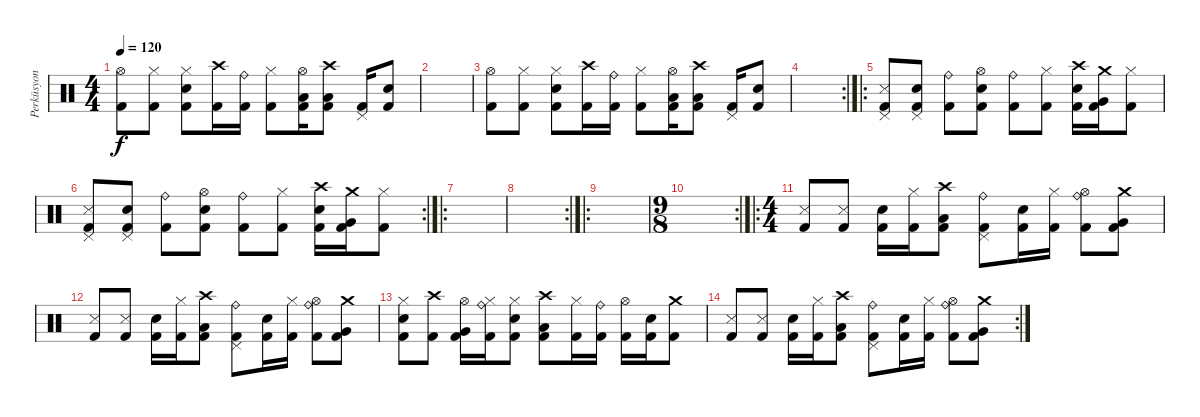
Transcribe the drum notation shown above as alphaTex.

\track ("Perküsyon" "Perküsyon") {instrument percussion}
\staff {score}
\articulation defaults
\ts (4 4)
\tempo 120
\clef neutral
\ks c
("Kick (hit) 2" "Hi-Hat (open)").8{dy f} ("Kick (hit) 2" "Hi-Hat (closed)").8 ("Kick (hit) 2" "Snare (hit) 2" "Hi-Hat (closed)").8 ("Kick (hit) 2" "Crash high (hit)").16 ("Kick (hit) 2" "Ride (bell)").16 ("Kick (hit) 2" "Hi-Hat (closed)").8 ("Kick (hit) 2" "Hi-Hat (open)" "Low Tom (hit)").16 ("Kick (hit) 2" "Low Tom (hit)" "Crash high (hit)").8 ("Kick (hit) 2" "Pedal Hi-Hat (hit)").16 ("Kick (hit) 2" "Snare (hit) 2").8 |
|
("Kick (hit) 2" "Hi-Hat (open)").8 ("Kick (hit) 2" "Hi-Hat (closed)").8 ("Kick (hit) 2" "Snare (hit) 2" "Hi-Hat (closed)").8 ("Kick (hit) 2" "Crash high (hit)").16 ("Kick (hit) 2" "Ride (bell)").16 ("Kick (hit) 2" "Hi-Hat (closed)").8 ("Kick (hit) 2" "Hi-Hat (open)" "Low Tom (hit)").16 ("Kick (hit) 2" "Low Tom (hit)" "Crash high (hit)").8 ("Kick (hit) 2" "Pedal Hi-Hat (hit)").16 ("Kick (hit) 2" "Snare (hit) 2").8 |
\rc 2
|
\ro
("Kick (hit) 2" "Snare (side stick) 3" "Pedal Hi-Hat (hit)").8 ("Kick (hit) 2" "Snare (hit) 2" "Pedal Hi-Hat (hit)").8 ("Kick (hit) 2" "Ride (bell)").8 ("Kick (hit) 2" "Snare (hit) 2" "Hi-Hat (open)").8 ("Kick (hit) 2" "Ride (bell)").8 ("Kick (hit) 2" "Hi-Hat (closed)").8 ("Kick (hit) 2" "Snare (hit) 2" "Crash high (hit)").16 ("Kick (hit) 2" "Very Low Tom (hit)" "Crash medium (hit)").16 ("Kick (hit) 2" "Hi-Hat (closed)").8 |
\rc 2
("Kick (hit) 2" "Snare (side stick) 3" "Pedal Hi-Hat (hit)").8 ("Kick (hit) 2" "Snare (hit) 2" "Pedal Hi-Hat (hit)").8 ("Kick (hit) 2" "Ride (bell)").8 ("Kick (hit) 2" "Snare (hit) 2" "Hi-Hat (open)").8 ("Kick (hit) 2" "Ride (bell)").8 ("Kick (hit) 2" "Hi-Hat (closed)").8 ("Kick (hit) 2" "Snare (hit) 2" "Crash high (hit)").16 ("Kick (hit) 2" "Very Low Tom (hit)" "Crash medium (hit)").16 ("Kick (hit) 2" "Hi-Hat (closed)").8 |
\ro
|
\rc 2
|
\ro
|
\rc 2
\ts (9 8)
|
\ro
\ts (4 4)
("Kick (hit) 2" "Snare (side stick) 3").8 ("Kick (hit) 2" "Snare (side stick) 3").8 ("Kick (hit) 2" "Snare (hit) 2").16 ("Kick (hit) 2" "Hi-Hat (closed)").16 ("Kick (hit) 2" "Low Tom (hit)" "Crash high (hit)").8 ("Kick (hit) 2" "Ride (bell)" "Pedal Hi-Hat (hit)").8 ("Kick (hit) 2" "Snare (hit) 2").16 ("Kick (hit) 2" "Hi-Hat (closed)").16 ("Kick (hit) 2" "Hi-Hat (open)" "Ride (bell)").8 ("Kick (hit) 2" "Very Low Tom (hit)" "Crash medium (hit)").8 |
("Kick (hit) 2" "Snare (side stick) 3").8 ("Kick (hit) 2" "Snare (side stick) 3").8 ("Kick (hit) 2" "Snare (hit) 2").16 ("Kick (hit) 2" "Hi-Hat (closed)").16 ("Kick (hit) 2" "Low Tom (hit)" "Crash high (hit)").8 ("Kick (hit) 2" "Ride (bell)" "Pedal Hi-Hat (hit)").8 ("Kick (hit) 2" "Snare (hit) 2").16 ("Kick (hit) 2" "Hi-Hat (closed)").16 ("Kick (hit) 2" "Hi-Hat (open)" "Ride (bell)").8 ("Kick (hit) 2" "Very Low Tom (hit)" "Crash medium (hit)").8 |
("Kick (hit) 2" "Snare (hit) 2" "Hi-Hat (closed)").8 ("Kick (hit) 2" "Crash high (hit)").8 ("Kick (hit) 2" "Hi-Hat (open)" "Very Low Tom (hit)").16 ("Kick (hit) 2" "Ride (bell)" "Hi-Hat (closed)").16 ("Kick (hit) 2" "Snare (hit) 2" "Hi-Hat (closed)").8 ("Kick (hit) 2" "Crash high (hit)" "Low Tom (hit)").8 ("Kick (hit) 2" "Hi-Hat (closed)").16 ("Kick (hit) 2" "Ride (bell)").16 ("Kick (hit) 2" "Hi-Hat (open)").16 ("Kick (hit) 2" "Snare (hit) 2").16 ("Crash medium (hit)" "Kick (hit) 2").8 |
\rc 2
("Kick (hit) 2" "Snare (side stick) 3").8 ("Kick (hit) 2" "Snare (side stick) 3").8 ("Kick (hit) 2" "Snare (hit) 2").16 ("Kick (hit) 2" "Hi-Hat (closed)").16 ("Kick (hit) 2" "Low Tom (hit)" "Crash high (hit)").8 ("Kick (hit) 2" "Ride (bell)" "Pedal Hi-Hat (hit)").8 ("Kick (hit) 2" "Snare (hit) 2").16 ("Kick (hit) 2" "Hi-Hat (closed)").16 ("Kick (hit) 2" "Hi-Hat (open)" "Ride (bell)").8 ("Kick (hit) 2" "Very Low Tom (hit)" "Crash medium (hit)").8
